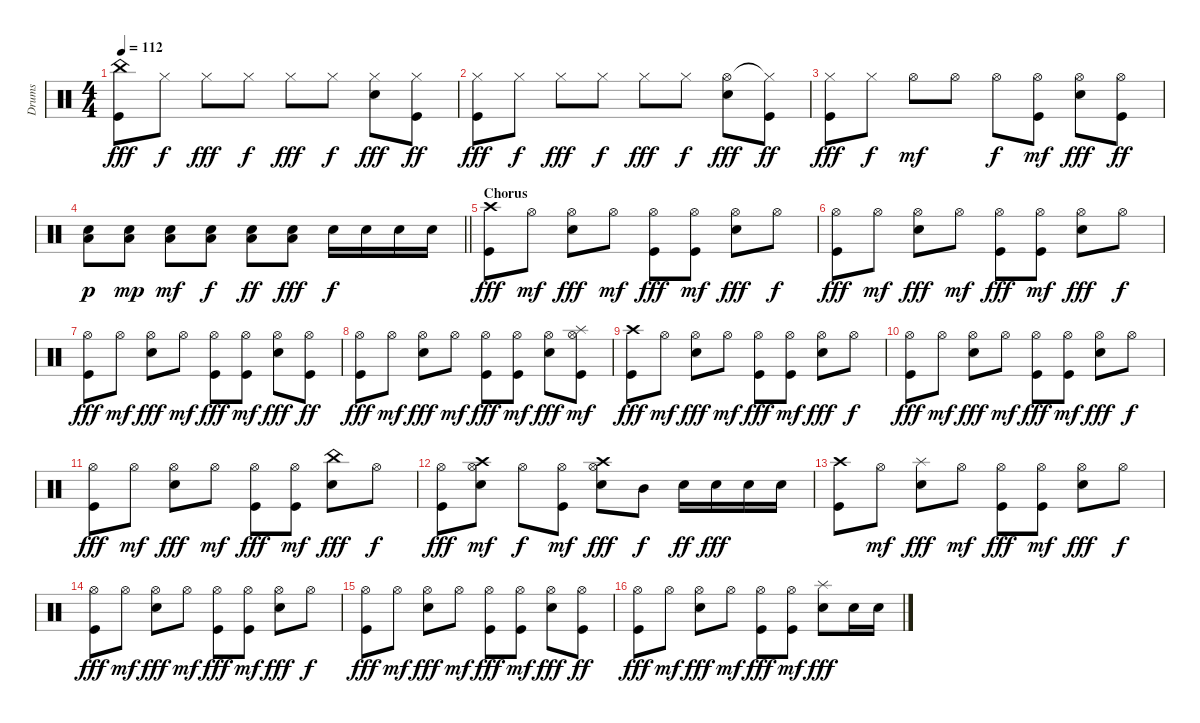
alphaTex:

\track ("Drums" "Drums") {instrument percussion}
\staff {score}
\articulation defaults
\ts (4 4)
\tempo 112
\clef neutral
\ks c
("Kick (hit)" "China (hit)").8{dy fff} "Hi-Hat (closed)".8{dy f} "Hi-Hat (closed)".8{dy fff} "Hi-Hat (closed)".8{dy f} "Hi-Hat (closed)".8{dy fff} "Hi-Hat (closed)".8{dy f} ("Snare (hit) 2" "Hi-Hat (closed)").8{dy fff} ("Kick (hit)" "Hi-Hat (closed)").8{dy ff} |
("Kick (hit)" "Hi-Hat (closed)").8{dy fff} "Hi-Hat (closed)".8{dy f} "Hi-Hat (closed)".8{dy fff} "Hi-Hat (closed)".8{dy f} "Hi-Hat (closed)".8{dy fff} "Hi-Hat (closed)".8{dy f} ("Snare (hit) 2" "Hi-Hat (open)").8{dy fff} ("Kick (hit)" "Hi-Hat (closed)"{t}).8{dy ff} |
("Kick (hit)" "Hi-Hat (closed)").8{dy fff} "Hi-Hat (closed)".8{dy f} "Hi-Hat (open)".8{dy mf} "Hi-Hat (open)".8 "Hi-Hat (open)".8{dy f} ("Kick (hit)" "Hi-Hat (open)").8{dy mf} ("Snare (hit) 2" "Hi-Hat (open)").8{dy fff} ("Kick (hit)" "Hi-Hat (open)").8{dy ff} |
\barLineRight lightlight
("Snare (hit) 2" "Low Tom (hit)").8{dy p} ("Snare (hit) 2" "Low Tom (hit)").8{dy mp} ("Snare (hit) 2" "Low Tom (hit)").8{dy mf} ("Snare (hit) 2" "Low Tom (hit)").8{dy f} ("Snare (hit) 2" "Low Tom (hit)").8{dy ff} ("Snare (hit) 2" "Low Tom (hit)").8{dy fff} "Snare (hit) 2".16{dy f} "Snare (hit) 2".16 "Snare (hit) 2".16 "Snare (hit) 2".16 |
\section ("" "Chorus")
("Kick (hit)" "Crash high (hit)").8{dy fff} "Hi-Hat (open)".8{dy mf} ("Snare (hit) 2" "Hi-Hat (open)").8{dy fff} "Hi-Hat (open)".8{dy mf} ("Kick (hit)" "Hi-Hat (open)").8{dy fff} ("Kick (hit)" "Hi-Hat (open)").8{dy mf} ("Snare (hit) 2" "Hi-Hat (open)").8{dy fff} "Hi-Hat (open)".8{dy f} |
("Kick (hit)" "Hi-Hat (open)").8{dy fff} "Hi-Hat (open)".8{dy mf} ("Snare (hit) 2" "Hi-Hat (open)").8{dy fff} "Hi-Hat (open)".8{dy mf} ("Kick (hit)" "Hi-Hat (open)").8{dy fff} ("Kick (hit)" "Hi-Hat (open)").8{dy mf} ("Snare (hit) 2" "Hi-Hat (open)").8{dy fff} "Hi-Hat (open)".8{dy f} |
("Kick (hit)" "Hi-Hat (open)").8{dy fff} "Hi-Hat (open)".8{dy mf} ("Snare (hit) 2" "Hi-Hat (open)").8{dy fff} "Hi-Hat (open)".8{dy mf} ("Kick (hit)" "Hi-Hat (open)").8{dy fff} ("Kick (hit)" "Hi-Hat (open)").8{dy mf} ("Snare (hit) 2" "Hi-Hat (open)").8{dy fff} ("Kick (hit)" "Hi-Hat (open)").8{dy ff} |
("Kick (hit)" "Hi-Hat (open)").8{dy fff} "Hi-Hat (open)".8{dy mf} ("Snare (hit) 2" "Hi-Hat (open)").8{dy fff} "Hi-Hat (open)".8{dy mf} ("Kick (hit)" "Hi-Hat (open)").8{dy fff} ("Kick (hit)" "Hi-Hat (open)").8{dy mf} ("Snare (hit) 2" "Hi-Hat (open)").8{dy fff} ("Kick (hit)" "Hi-Hat (open)" "Splash (hit)").8{dy mf} |
("Kick (hit)" "Crash high (hit)").8{dy fff} "Hi-Hat (open)".8{dy mf} ("Snare (hit) 2" "Hi-Hat (open)").8{dy fff} "Hi-Hat (open)".8{dy mf} ("Kick (hit)" "Hi-Hat (open)").8{dy fff} ("Kick (hit)" "Hi-Hat (open)").8{dy mf} ("Snare (hit) 2" "Hi-Hat (open)").8{dy fff} "Hi-Hat (open)".8{dy f} |
("Kick (hit)" "Hi-Hat (open)").8{dy fff} "Hi-Hat (open)".8{dy mf} ("Snare (hit) 2" "Hi-Hat (open)").8{dy fff} "Hi-Hat (open)".8{dy mf} ("Kick (hit)" "Hi-Hat (open)").8{dy fff} ("Kick (hit)" "Hi-Hat (open)").8{dy mf} ("Snare (hit) 2" "Hi-Hat (open)").8{dy fff} "Hi-Hat (open)".8{dy f} |
("Kick (hit)" "Hi-Hat (open)").8{dy fff} "Hi-Hat (open)".8{dy mf} ("Snare (hit) 2" "Hi-Hat (open)").8{dy fff} "Hi-Hat (open)".8{dy mf} ("Kick (hit)" "Hi-Hat (open)").8{dy fff} ("Kick (hit)" "Hi-Hat (open)").8{dy mf} ("Snare (hit) 2" "China (hit)").8{dy fff} "Hi-Hat (open)".8{dy f} |
("Kick (hit)" "Hi-Hat (open)").8{dy fff} ("Snare (hit) 2" "Hi-Hat (open)" "Crash high (hit)").8{dy mf} "Hi-Hat (open)".8{dy f} ("Kick (hit)" "Hi-Hat (open)").8{dy mf} ("Snare (hit) 2" "Hi-Hat (open)" "Crash high (hit)").8{dy fff} "Mid Tom (hit)".8{dy f} "Snare (hit) 2".16{dy ff} "Snare (hit) 2".16{dy fff} "Snare (hit) 2".16 "Snare (hit) 2".16 |
("Kick (hit)" "Crash high (hit)").8 "Hi-Hat (open)".8{dy mf} ("Snare (hit) 2" "Splash (hit)").8{dy fff} "Hi-Hat (open)".8{dy mf} ("Kick (hit)" "Hi-Hat (open)").8{dy fff} ("Kick (hit)" "Hi-Hat (open)").8{dy mf} ("Snare (hit) 2" "Hi-Hat (open)").8{dy fff} "Hi-Hat (open)".8{dy f} |
("Kick (hit)" "Hi-Hat (open)").8{dy fff} "Hi-Hat (open)".8{dy mf} ("Snare (hit) 2" "Hi-Hat (open)").8{dy fff} "Hi-Hat (open)".8{dy mf} ("Kick (hit)" "Hi-Hat (open)").8{dy fff} ("Kick (hit)" "Hi-Hat (open)").8{dy mf} ("Snare (hit) 2" "Hi-Hat (open)").8{dy fff} "Hi-Hat (open)".8{dy f} |
("Kick (hit)" "Hi-Hat (open)").8{dy fff} "Hi-Hat (open)".8{dy mf} ("Snare (hit) 2" "Hi-Hat (open)").8{dy fff} "Hi-Hat (open)".8{dy mf} ("Kick (hit)" "Hi-Hat (open)").8{dy fff} ("Kick (hit)" "Hi-Hat (open)").8{dy mf} ("Snare (hit) 2" "Hi-Hat (open)").8{dy fff} ("Kick (hit)" "Hi-Hat (open)").8{dy ff} |
("Kick (hit)" "Hi-Hat (open)").8{dy fff} "Hi-Hat (open)".8{dy mf} ("Snare (hit) 2" "Hi-Hat (open)").8{dy fff} "Hi-Hat (open)".8{dy mf} ("Kick (hit)" "Hi-Hat (open)").8{dy fff} ("Kick (hit)" "Hi-Hat (open)").8{dy mf} ("Snare (hit) 2" "Splash (hit)").8{dy fff} "Snare (hit) 2".16 "Snare (hit) 2".16
